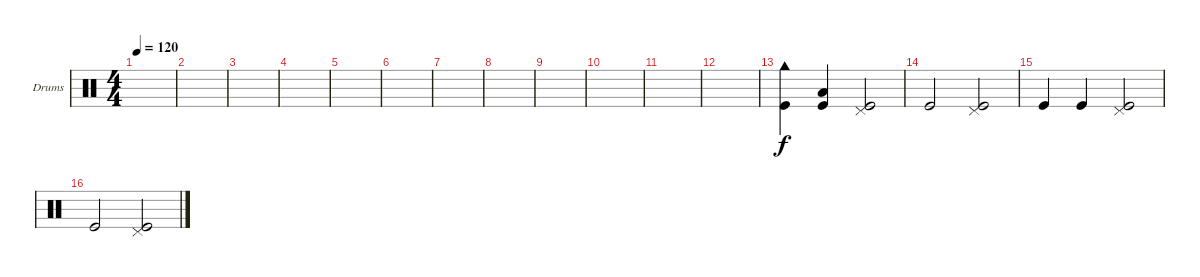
\bracketExtendMode groupsimilarinstruments
\firstSystemTrackNameOrientation horizontal
\otherSystemsTrackNameOrientation horizontal
\track ("Drumkit" "Drums") {instrument percussion}
\staff {score}
\articulation defaults
\ts (4 4)
\tempo 120
\clef neutral
\ks c
|
|
|
|
|
|
|
|
|
|
|
|
("Kick (hit)" "Cowbell high (hit)").4 ("Kick (hit)" "Low Tom (hit)").4 ("Kick (hit)" "Pedal Hi-Hat (hit)").2 |
"Kick (hit)".2 ("Pedal Hi-Hat (hit)" "Kick (hit)").2 |
"Kick (hit)".4 "Kick (hit)".4 ("Kick (hit)" "Pedal Hi-Hat (hit)").2 |
"Kick (hit)".2 ("Pedal Hi-Hat (hit)" "Kick (hit)").2
